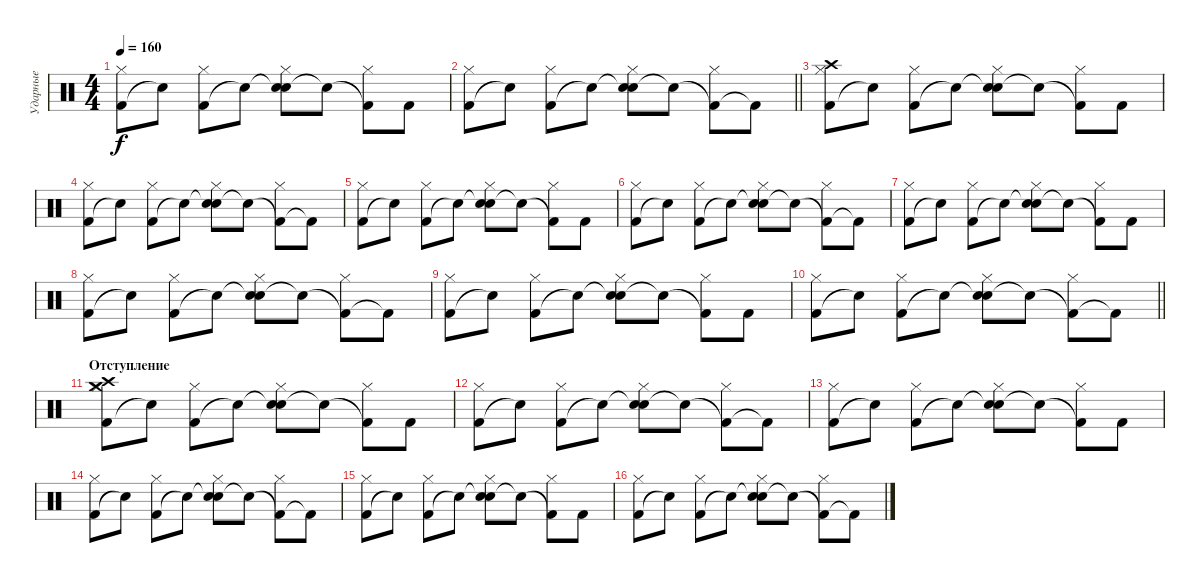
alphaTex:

\track ("Ударные" "Ударные") {instrument percussion}
\staff {score}
\articulation defaults
\ts (4 4)
\tempo 160
\clef neutral
\ks c
("Kick (hit) 2" "Hi-Hat (closed)").8{dy f} "Snare (hit)"{t}.8 ("Kick (hit) 2" "Hi-Hat (closed)").8 "Snare (hit)"{t}.8 ("Snare (hit)"{t} "Hi-Hat (closed)" "Snare (hit) 2").8 "Snare (hit)"{t}.8 ("Kick (hit) 2"{t} "Hi-Hat (closed)").8 "Kick (hit) 2".8 |
\barLineRight lightlight
("Kick (hit) 2" "Hi-Hat (closed)").8 "Snare (hit)"{t}.8 ("Kick (hit) 2" "Hi-Hat (closed)").8 "Snare (hit)"{t}.8 ("Snare (hit)"{t} "Hi-Hat (closed)" "Snare (hit) 2").8 "Snare (hit)"{t}.8 ("Kick (hit) 2"{t} "Hi-Hat (closed)").8 "Kick (hit) 2"{t}.8 |
\section ("" " ")
("Kick (hit) 2" "Hi-Hat (closed)" "Crash high (hit)").8 "Snare (hit)"{t}.8 ("Kick (hit) 2" "Hi-Hat (closed)").8 "Snare (hit)"{t}.8 ("Snare (hit)"{t} "Hi-Hat (closed)" "Snare (hit) 2").8 "Snare (hit)"{t}.8 ("Kick (hit) 2"{t} "Hi-Hat (closed)").8 "Kick (hit) 2".8 |
("Kick (hit) 2" "Hi-Hat (closed)").8 "Snare (hit)"{t}.8 ("Kick (hit) 2" "Hi-Hat (closed)").8 "Snare (hit)"{t}.8 ("Snare (hit)"{t} "Hi-Hat (closed)" "Snare (hit) 2").8 "Snare (hit)"{t}.8 ("Kick (hit) 2"{t} "Hi-Hat (closed)").8 "Kick (hit) 2"{t}.8 |
("Kick (hit) 2" "Hi-Hat (closed)").8 "Snare (hit)"{t}.8 ("Kick (hit) 2" "Hi-Hat (closed)").8 "Snare (hit)"{t}.8 ("Snare (hit)"{t} "Hi-Hat (closed)" "Snare (hit) 2").8 "Snare (hit)"{t}.8 ("Kick (hit) 2"{t} "Hi-Hat (closed)").8 "Kick (hit) 2".8 |
("Kick (hit) 2" "Hi-Hat (closed)").8 "Snare (hit)"{t}.8 ("Kick (hit) 2" "Hi-Hat (closed)").8 "Snare (hit)"{t}.8 ("Snare (hit)"{t} "Hi-Hat (closed)" "Snare (hit) 2").8 "Snare (hit)"{t}.8 ("Kick (hit) 2"{t} "Hi-Hat (closed)").8 "Kick (hit) 2"{t}.8 |
("Kick (hit) 2" "Hi-Hat (closed)").8 "Snare (hit)"{t}.8 ("Kick (hit) 2" "Hi-Hat (closed)").8 "Snare (hit)"{t}.8 ("Snare (hit)"{t} "Hi-Hat (closed)" "Snare (hit) 2").8 "Snare (hit)"{t}.8 ("Kick (hit) 2"{t} "Hi-Hat (closed)").8 "Kick (hit) 2".8 |
("Kick (hit) 2" "Hi-Hat (closed)").8 "Snare (hit)"{t}.8 ("Kick (hit) 2" "Hi-Hat (closed)").8 "Snare (hit)"{t}.8 ("Snare (hit)"{t} "Hi-Hat (closed)" "Snare (hit) 2").8 "Snare (hit)"{t}.8 ("Kick (hit) 2"{t} "Hi-Hat (closed)").8 "Kick (hit) 2"{t}.8 |
("Kick (hit) 2" "Hi-Hat (closed)").8 "Snare (hit)"{t}.8 ("Kick (hit) 2" "Hi-Hat (closed)").8 "Snare (hit)"{t}.8 ("Snare (hit)"{t} "Hi-Hat (closed)" "Snare (hit) 2").8 "Snare (hit)"{t}.8 ("Kick (hit) 2"{t} "Hi-Hat (closed)").8 "Kick (hit) 2".8 |
\barLineRight lightlight
("Kick (hit) 2" "Hi-Hat (closed)").8 "Snare (hit)"{t}.8 ("Kick (hit) 2" "Hi-Hat (closed)").8 "Snare (hit)"{t}.8 ("Snare (hit)"{t} "Hi-Hat (closed)" "Snare (hit) 2").8 "Snare (hit)"{t}.8 ("Kick (hit) 2"{t} "Hi-Hat (closed)").8 "Kick (hit) 2"{t}.8 |
\section ("" "Отступление")
("Kick (hit) 2" "Hi-Hat (closed)" "Crash medium (hit)" "Crash high (hit)").8 "Snare (hit)"{t}.8 ("Kick (hit) 2" "Hi-Hat (closed)").8 "Snare (hit)"{t}.8 ("Snare (hit)"{t} "Hi-Hat (closed)" "Snare (hit) 2").8 "Snare (hit)"{t}.8 ("Kick (hit) 2"{t} "Hi-Hat (closed)").8 "Kick (hit) 2".8 |
("Kick (hit) 2" "Hi-Hat (closed)").8 "Snare (hit)"{t}.8 ("Kick (hit) 2" "Hi-Hat (closed)").8 "Snare (hit)"{t}.8 ("Snare (hit)"{t} "Hi-Hat (closed)" "Snare (hit) 2").8 "Snare (hit)"{t}.8 ("Kick (hit) 2"{t} "Hi-Hat (closed)").8 "Kick (hit) 2"{t}.8 |
("Kick (hit) 2" "Hi-Hat (closed)").8 "Snare (hit)"{t}.8 ("Kick (hit) 2" "Hi-Hat (closed)").8 "Snare (hit)"{t}.8 ("Snare (hit)"{t} "Hi-Hat (closed)" "Snare (hit) 2").8 "Snare (hit)"{t}.8 ("Kick (hit) 2"{t} "Hi-Hat (closed)").8 "Kick (hit) 2".8 |
("Kick (hit) 2" "Hi-Hat (closed)").8 "Snare (hit)"{t}.8 ("Kick (hit) 2" "Hi-Hat (closed)").8 "Snare (hit)"{t}.8 ("Snare (hit)"{t} "Hi-Hat (closed)" "Snare (hit) 2").8 "Snare (hit)"{t}.8 ("Kick (hit) 2"{t} "Hi-Hat (closed)").8 "Kick (hit) 2"{t}.8 |
("Kick (hit) 2" "Hi-Hat (closed)").8 "Snare (hit)"{t}.8 ("Kick (hit) 2" "Hi-Hat (closed)").8 "Snare (hit)"{t}.8 ("Snare (hit)"{t} "Hi-Hat (closed)" "Snare (hit) 2").8 "Snare (hit)"{t}.8 ("Kick (hit) 2"{t} "Hi-Hat (closed)").8 "Kick (hit) 2".8 |
("Kick (hit) 2" "Hi-Hat (closed)").8 "Snare (hit)"{t}.8 ("Kick (hit) 2" "Hi-Hat (closed)").8 "Snare (hit)"{t}.8 ("Snare (hit)"{t} "Hi-Hat (closed)" "Snare (hit) 2").8 "Snare (hit)"{t}.8 ("Kick (hit) 2"{t} "Hi-Hat (closed)").8 "Kick (hit) 2"{t}.8
